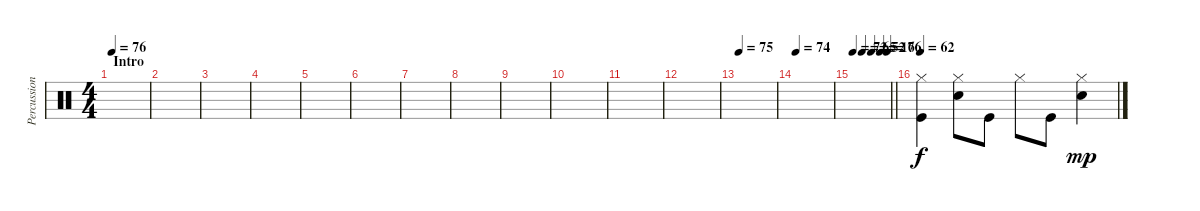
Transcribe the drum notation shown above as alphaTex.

\track ("Percussion" "Percussion") {instrument percussion}
\staff {score}
\articulation defaults
\ts (4 4)
\section ("" "Intro")
\tempo 76
\clef neutral
\ks c
|
|
|
|
|
|
|
|
|
|
|
|
\tempo 75
|
\tempo 74
|
\tempo 72
\tempo (65 0.25)
\tempo (52 0.5)
\tempo (16 0.75)
\tempo (76 0.9375)
\barLineRight lightlight
|
\tempo 62
("Hi-Hat (closed)" "Kick (hit)").4 ("Hi-Hat (closed)" "Snare (hit) 2").8 "Kick (hit)".8{dy f} "Hi-Hat (closed)".8 "Kick (hit)".8 ("Hi-Hat (closed)" "Snare (hit) 2").4{dy mp}
